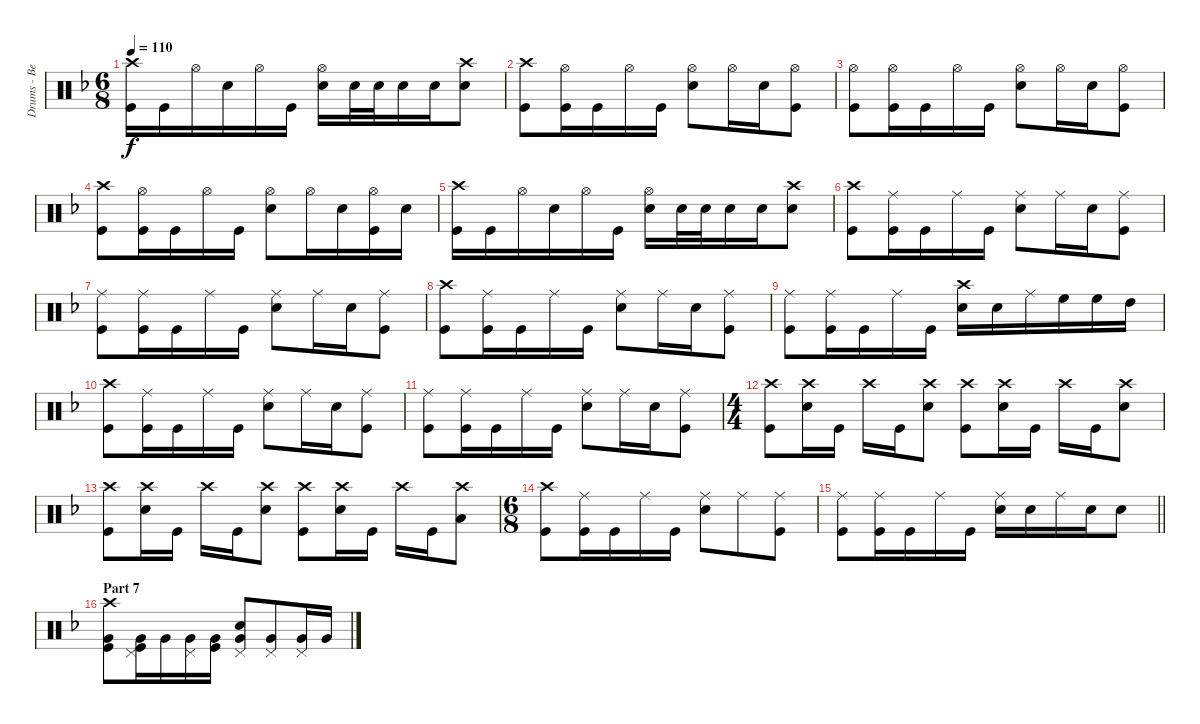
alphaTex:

\track ("Drums - Ben Johnston" "Drums - Be") {instrument percussion}
\staff {score}
\articulation defaults
\ts (6 8)
\tempo 110
\clef neutral
\ks dminor
("Crash high (hit)" "Kick (hit)").16{dy f} "Kick (hit)".16 "Hi-Hat (open)".16 "Snare (hit) 2".16 "Hi-Hat (open)".16 "Kick (hit)".16 ("Hi-Hat (open)" "Snare (hit) 2").16 "Snare (hit) 2".32 "Snare (hit) 2".32 "Snare (hit) 2".16 "Snare (hit) 2".16 ("Crash high (hit)" "Snare (hit) 2").8 |
("Crash high (hit)" "Kick (hit)").8 ("Hi-Hat (open)" "Kick (hit)").16 "Kick (hit)".16 "Hi-Hat (open)".16 "Kick (hit)".16 ("Hi-Hat (open)" "Snare (hit) 2").8 "Hi-Hat (open)".16 "Snare (hit) 2".16 ("Hi-Hat (open)" "Kick (hit)").8 |
("Hi-Hat (open)" "Kick (hit)").8 ("Hi-Hat (open)" "Kick (hit)").16 "Kick (hit)".16 "Hi-Hat (open)".16 "Kick (hit)".16 ("Hi-Hat (open)" "Snare (hit) 2").8 "Hi-Hat (open)".16 "Snare (hit) 2".16 ("Hi-Hat (open)" "Kick (hit)").8 |
("Crash high (hit)" "Kick (hit)").8 ("Hi-Hat (open)" "Kick (hit)").16 "Kick (hit)".16 "Hi-Hat (open)".16 "Kick (hit)".16 ("Hi-Hat (open)" "Snare (hit) 2").8 "Hi-Hat (open)".16 "Snare (hit) 2".16 ("Hi-Hat (open)" "Kick (hit)").16 "Snare (hit) 2".16 |
("Crash high (hit)" "Kick (hit)").16 "Kick (hit)".16 "Hi-Hat (open)".16 "Snare (hit) 2".16 "Hi-Hat (open)".16 "Kick (hit)".16 ("Hi-Hat (open)" "Snare (hit) 2").16 "Snare (hit) 2".32 "Snare (hit) 2".32 "Snare (hit) 2".16 "Snare (hit) 2".16 ("Crash high (hit)" "Snare (hit) 2").8 |
("Crash high (hit)" "Kick (hit)").8 ("Ride (middle)" "Kick (hit)").16 "Kick (hit)".16 "Ride (middle)".16 "Kick (hit)".16 ("Ride (middle)" "Snare (hit) 2").8 "Ride (middle)".16 "Snare (hit) 2".16 ("Ride (middle)" "Kick (hit)").8 |
("Ride (middle)" "Kick (hit)").8 ("Ride (middle)" "Kick (hit)").16 "Kick (hit)".16 "Ride (middle)".16 "Kick (hit)".16 ("Ride (middle)" "Snare (hit) 2").8 "Ride (middle)".16 "Snare (hit) 2".16 ("Ride (middle)" "Kick (hit)").8 |
("Crash high (hit)" "Kick (hit)").8 ("Ride (middle)" "Kick (hit)").16 "Kick (hit)".16 "Ride (middle)".16 "Kick (hit)".16 ("Ride (middle)" "Snare (hit) 2").8 "Ride (middle)".16 "Snare (hit) 2".16 ("Ride (middle)" "Kick (hit)").8 |
("Ride (middle)" "Kick (hit)").8 ("Ride (middle)" "Kick (hit)").16 "Kick (hit)".16 "Ride (middle)".16 "Kick (hit)".16 ("Crash high (hit)" "Snare (hit) 2").16 "Snare (hit) 2".16 "Ride (middle)".16 "High Floor Tom (hit)".16 "High Floor Tom (hit)".16 "High Tom (hit)".16 |
("Crash high (hit)" "Kick (hit)").8 ("Ride (middle)" "Kick (hit)").16 "Kick (hit)".16 "Ride (middle)".16 "Kick (hit)".16 ("Ride (middle)" "Snare (hit) 2").8 "Ride (middle)".16 "Snare (hit) 2".16 ("Ride (middle)" "Kick (hit)").8 |
("Ride (middle)" "Kick (hit)").8 ("Ride (middle)" "Kick (hit)").16 "Kick (hit)".16 "Ride (middle)".16 "Kick (hit)".16 ("Ride (middle)" "Snare (hit) 2").8 "Ride (middle)".16 "Snare (hit) 2".16 ("Ride (middle)" "Kick (hit)").8 |
\ts (4 4)
("Crash high (hit)" "Kick (hit)").8 ("Crash high (hit)" "Snare (hit) 2").16 "Kick (hit)".16 "Crash high (hit)".16 "Kick (hit)".16 ("Crash high (hit)" "Snare (hit) 2").8 ("Crash high (hit)" "Kick (hit)").8 ("Crash high (hit)" "Snare (hit) 2").16 "Kick (hit)".16 "Crash high (hit)".16 "Kick (hit)".16 ("Crash high (hit)" "Snare (hit) 2").8 |
("Crash high (hit)" "Kick (hit)").8 ("Crash high (hit)" "Snare (hit) 2").16 "Kick (hit)".16 "Crash high (hit)".16 "Kick (hit)".16 ("Crash high (hit)" "Snare (hit) 2").8 ("Crash high (hit)" "Kick (hit)").8 ("Crash high (hit)" "Snare (hit) 2").16 "Kick (hit)".16 "Crash high (hit)".16 "Kick (hit)".16 ("Crash high (hit)" "Low Floor Tom (hit)").8 |
\ts (6 8)
("Crash high (hit)" "Kick (hit)").8 ("Ride (middle)" "Kick (hit)").16 "Kick (hit)".16 "Ride (middle)".16 "Kick (hit)".16 ("Ride (middle)" "Snare (hit) 2").8 "Ride (middle)".8 ("Ride (middle)" "Kick (hit)").8 |
\barLineRight lightlight
("Ride (middle)" "Kick (hit)").8 ("Ride (middle)" "Kick (hit)").16 "Kick (hit)".16 "Ride (middle)".16 "Kick (hit)".16 ("Ride (middle)" "Snare (hit) 2").16 "Snare (hit) 2".16 "Ride (middle)".16 "Snare (hit) 2".16 "Snare (hit) 2".8 |
\section ("" "Part 7")
("Crash high (hit)" "Very Low Tom (hit)" "Kick (hit)").8 ("Very Low Tom (hit)" "Pedal Hi-Hat (hit)" "Kick (hit)").16 "Very Low Tom (hit)".16 ("Very Low Tom (hit)" "Pedal Hi-Hat (hit)").16 ("Very Low Tom (hit)" "Kick (hit)").16 ("Very Low Tom (hit)" "Pedal Hi-Hat (hit)" "Snare (hit) 2").8 ("Very Low Tom (hit)" "Pedal Hi-Hat (hit)").8 ("Very Low Tom (hit)" "Pedal Hi-Hat (hit)").16 "Very Low Tom (hit)".16
